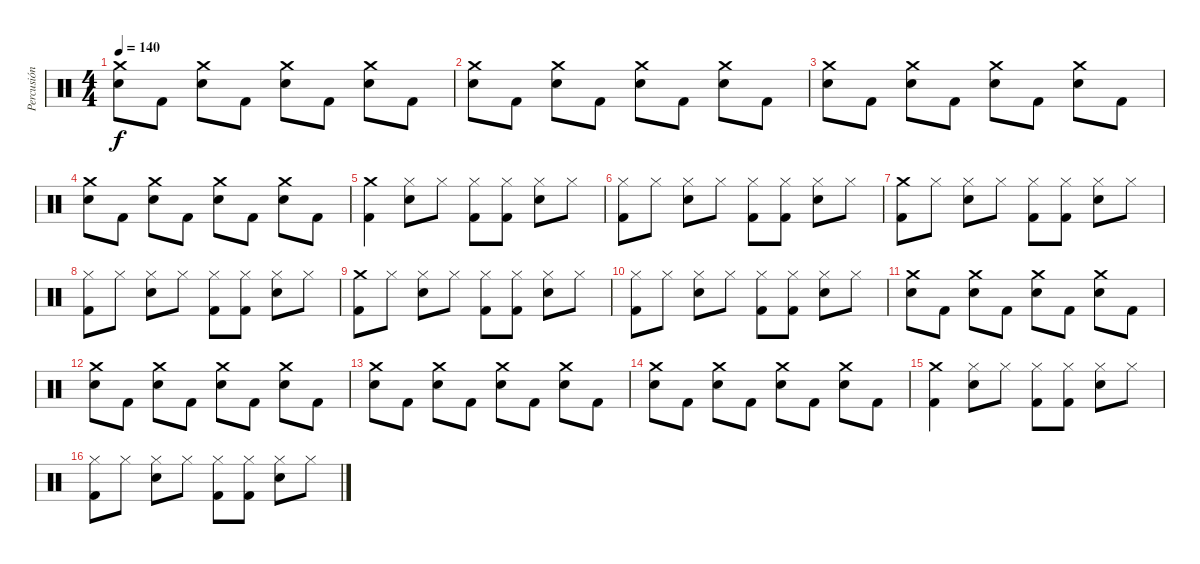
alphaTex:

\track ("Percusión" "Percusión") {instrument percussion}
\staff {score}
\articulation defaults
\ts (4 4)
\tempo 140
\clef neutral
\ks c
("Crash medium (hit)" "Snare (hit) 2").8{dy f} "Kick (hit) 2".8 ("Crash medium (hit)" "Snare (hit) 2").8 "Kick (hit) 2".8 ("Crash medium (hit)" "Snare (hit) 2").8 "Kick (hit) 2".8 ("Crash medium (hit)" "Snare (hit) 2").8 "Kick (hit) 2".8 |
("Crash medium (hit)" "Snare (hit) 2").8 "Kick (hit) 2".8 ("Crash medium (hit)" "Snare (hit) 2").8 "Kick (hit) 2".8 ("Crash medium (hit)" "Snare (hit) 2").8 "Kick (hit) 2".8 ("Crash medium (hit)" "Snare (hit) 2").8 "Kick (hit) 2".8 |
("Crash medium (hit)" "Snare (hit) 2").8 "Kick (hit) 2".8 ("Crash medium (hit)" "Snare (hit) 2").8 "Kick (hit) 2".8 ("Crash medium (hit)" "Snare (hit) 2").8 "Kick (hit) 2".8 ("Crash medium (hit)" "Snare (hit) 2").8 "Kick (hit) 2".8 |
("Crash medium (hit)" "Snare (hit) 2").8 "Kick (hit) 2".8 ("Crash medium (hit)" "Snare (hit) 2").8 "Kick (hit) 2".8 ("Crash medium (hit)" "Snare (hit) 2").8 "Kick (hit) 2".8 ("Crash medium (hit)" "Snare (hit) 2").8 "Kick (hit) 2".8 |
("Crash medium (hit)" "Kick (hit) 2").4 ("Hi-Hat (closed)" "Snare (hit) 2").8 "Hi-Hat (closed)".8 ("Hi-Hat (closed)" "Kick (hit) 2").8 ("Hi-Hat (closed)" "Kick (hit) 2").8 ("Hi-Hat (closed)" "Snare (hit) 2").8 "Hi-Hat (closed)".8 |
("Hi-Hat (closed)" "Kick (hit) 2").8 "Hi-Hat (closed)".8 ("Hi-Hat (closed)" "Snare (hit) 2").8 "Hi-Hat (closed)".8 ("Hi-Hat (closed)" "Kick (hit) 2").8 ("Hi-Hat (closed)" "Kick (hit) 2").8 ("Hi-Hat (closed)" "Snare (hit) 2").8 "Hi-Hat (closed)".8 |
("Crash medium (hit)" "Kick (hit) 2").8 "Hi-Hat (closed)".8 ("Hi-Hat (closed)" "Snare (hit) 2").8 "Hi-Hat (closed)".8 ("Hi-Hat (closed)" "Kick (hit) 2").8 ("Hi-Hat (closed)" "Kick (hit) 2").8 ("Hi-Hat (closed)" "Snare (hit) 2").8 "Hi-Hat (closed)".8 |
("Hi-Hat (closed)" "Kick (hit) 2").8 "Hi-Hat (closed)".8 ("Hi-Hat (closed)" "Snare (hit) 2").8 "Hi-Hat (closed)".8 ("Hi-Hat (closed)" "Kick (hit) 2").8 ("Hi-Hat (closed)" "Kick (hit) 2").8 ("Hi-Hat (closed)" "Snare (hit) 2").8 "Hi-Hat (closed)".8 |
("Crash medium (hit)" "Kick (hit) 2").8 "Hi-Hat (closed)".8 ("Hi-Hat (closed)" "Snare (hit) 2").8 "Hi-Hat (closed)".8 ("Hi-Hat (closed)" "Kick (hit) 2").8 ("Hi-Hat (closed)" "Kick (hit) 2").8 ("Hi-Hat (closed)" "Snare (hit) 2").8 "Hi-Hat (closed)".8 |
("Hi-Hat (closed)" "Kick (hit) 2").8 "Hi-Hat (closed)".8 ("Hi-Hat (closed)" "Snare (hit) 2").8 "Hi-Hat (closed)".8 ("Hi-Hat (closed)" "Kick (hit) 2").8 ("Hi-Hat (closed)" "Kick (hit) 2").8 ("Hi-Hat (closed)" "Snare (hit) 2").8 "Hi-Hat (closed)".8 |
("Crash medium (hit)" "Snare (hit) 2").8 "Kick (hit) 2".8 ("Crash medium (hit)" "Snare (hit) 2").8 "Kick (hit) 2".8 ("Crash medium (hit)" "Snare (hit) 2").8 "Kick (hit) 2".8 ("Crash medium (hit)" "Snare (hit) 2").8 "Kick (hit) 2".8 |
("Crash medium (hit)" "Snare (hit) 2").8 "Kick (hit) 2".8 ("Crash medium (hit)" "Snare (hit) 2").8 "Kick (hit) 2".8 ("Crash medium (hit)" "Snare (hit) 2").8 "Kick (hit) 2".8 ("Crash medium (hit)" "Snare (hit) 2").8 "Kick (hit) 2".8 |
("Crash medium (hit)" "Snare (hit) 2").8 "Kick (hit) 2".8 ("Crash medium (hit)" "Snare (hit) 2").8 "Kick (hit) 2".8 ("Crash medium (hit)" "Snare (hit) 2").8 "Kick (hit) 2".8 ("Crash medium (hit)" "Snare (hit) 2").8 "Kick (hit) 2".8 |
("Crash medium (hit)" "Snare (hit) 2").8 "Kick (hit) 2".8 ("Crash medium (hit)" "Snare (hit) 2").8 "Kick (hit) 2".8 ("Crash medium (hit)" "Snare (hit) 2").8 "Kick (hit) 2".8 ("Crash medium (hit)" "Snare (hit) 2").8 "Kick (hit) 2".8 |
("Crash medium (hit)" "Kick (hit) 2").4 ("Hi-Hat (closed)" "Snare (hit) 2").8 "Hi-Hat (closed)".8 ("Hi-Hat (closed)" "Kick (hit) 2").8 ("Hi-Hat (closed)" "Kick (hit) 2").8 ("Hi-Hat (closed)" "Snare (hit) 2").8 "Hi-Hat (closed)".8 |
("Hi-Hat (closed)" "Kick (hit) 2").8 "Hi-Hat (closed)".8 ("Hi-Hat (closed)" "Snare (hit) 2").8 "Hi-Hat (closed)".8 ("Hi-Hat (closed)" "Kick (hit) 2").8 ("Hi-Hat (closed)" "Kick (hit) 2").8 ("Hi-Hat (closed)" "Snare (hit) 2").8 "Hi-Hat (closed)".8
